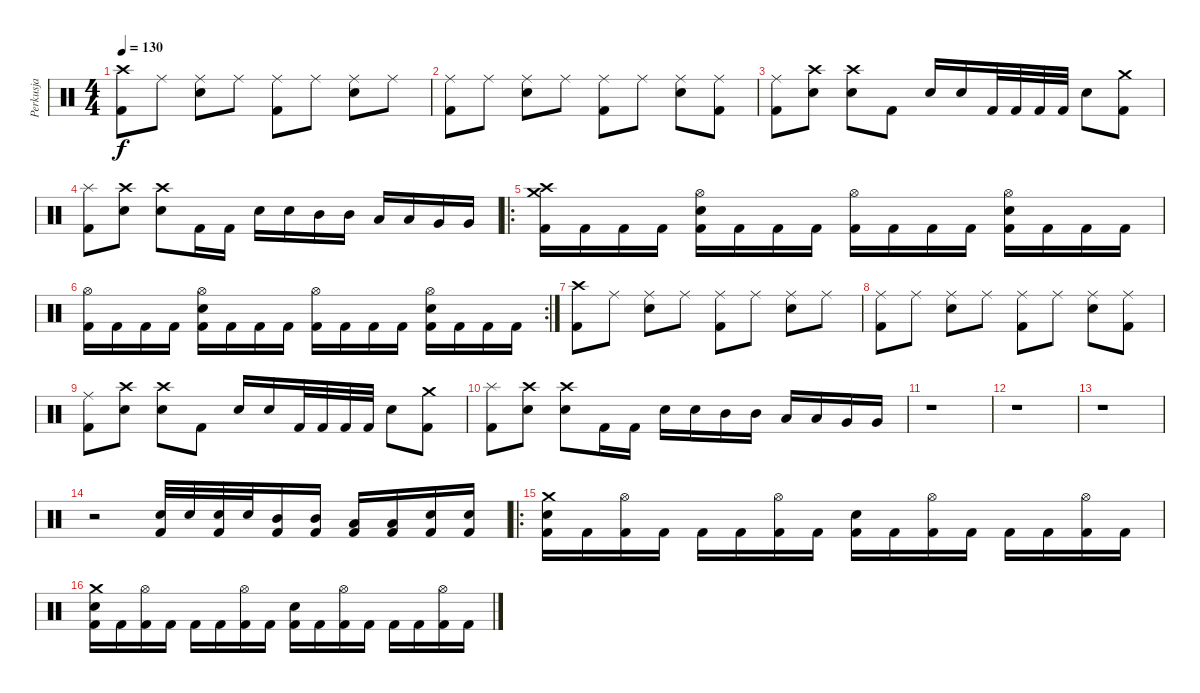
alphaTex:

\track ("Perkusja" "Perkusja") {instrument percussion}
\staff {score}
\articulation defaults
\ts (4 4)
\tempo 130
\clef neutral
\ks c
("Kick (hit) 2" "Crash high (hit)").8{dy f} "Ride (middle)".8 ("Snare (hit) 2" "Ride (middle)").8 "Ride (middle)".8 ("Kick (hit) 2" "Ride (middle)").8 "Ride (middle)".8 ("Snare (hit) 2" "Ride (middle)").8 "Ride (middle)".8 |
("Kick (hit) 2" "Ride (middle)").8 "Ride (middle)".8 ("Snare (hit) 2" "Ride (middle)").8 "Ride (middle)".8 ("Kick (hit) 2" "Ride (middle)").8 "Ride (middle)".8 ("Snare (hit) 2" "Ride (middle)").8 ("Kick (hit) 2" "Ride (middle)").8 |
("Ride (middle)" "Kick (hit) 2").8 ("Snare (hit) 2" "Crash high (hit)").8 ("Snare (hit) 2" "Crash high (hit)").8 "Kick (hit) 2".8 "Snare (hit) 2".16 "Snare (hit) 2".16 "Kick (hit) 2".32 "Kick (hit) 2".32 "Kick (hit) 2".32 "Kick (hit) 2".32 "Snare (hit) 2".8 ("Crash medium (hit)" "Kick (hit) 2").8 |
("Kick (hit) 2" "Splash (hit)").8 ("Snare (hit) 2" "Crash high (hit)").8 ("Snare (hit) 2" "Crash high (hit)").8 "Kick (hit) 2".16 "Kick (hit) 2".16 "Snare (hit) 2".16 "Snare (hit) 2".16 "Mid Tom (hit)".16 "Mid Tom (hit)".16 "Low Tom (hit)".16 "Low Tom (hit)".16 "Very Low Tom (hit)".16 "Very Low Tom (hit)".16 |
\ro
("Kick (hit) 2" "Crash high (hit)" "Crash medium (hit)").16 "Kick (hit) 2".16 "Kick (hit) 2".16 "Kick (hit) 2".16 ("Kick (hit) 2" "Snare (hit) 2" "Hi-Hat (open)").16 "Kick (hit) 2".16 "Kick (hit) 2".16 "Kick (hit) 2".16 ("Kick (hit) 2" "Hi-Hat (open)").16 "Kick (hit) 2".16 "Kick (hit) 2".16 "Kick (hit) 2".16 ("Kick (hit) 2" "Snare (hit) 2" "Hi-Hat (open)").16 "Kick (hit) 2".16 "Kick (hit) 2".16 "Kick (hit) 2".16 |
\rc 2
("Kick (hit) 2" "Hi-Hat (open)").16 "Kick (hit) 2".16 "Kick (hit) 2".16 "Kick (hit) 2".16 ("Kick (hit) 2" "Snare (hit) 2" "Hi-Hat (open)").16 "Kick (hit) 2".16 "Kick (hit) 2".16 "Kick (hit) 2".16 ("Kick (hit) 2" "Hi-Hat (open)").16 "Kick (hit) 2".16 "Kick (hit) 2".16 "Kick (hit) 2".16 ("Kick (hit) 2" "Snare (hit) 2" "Hi-Hat (open)").16 "Kick (hit) 2".16 "Kick (hit) 2".16 "Kick (hit) 2".16 |
("Kick (hit) 2" "Crash high (hit)").8 "Ride (middle)".8 ("Snare (hit) 2" "Ride (middle)").8 "Ride (middle)".8 ("Kick (hit) 2" "Ride (middle)").8 "Ride (middle)".8 ("Snare (hit) 2" "Ride (middle)").8 "Ride (middle)".8 |
("Kick (hit) 2" "Ride (middle)").8 "Ride (middle)".8 ("Snare (hit) 2" "Ride (middle)").8 "Ride (middle)".8 ("Kick (hit) 2" "Ride (middle)").8 "Ride (middle)".8 ("Snare (hit) 2" "Ride (middle)").8 ("Kick (hit) 2" "Ride (middle)").8 |
("Ride (middle)" "Kick (hit) 2").8 ("Snare (hit) 2" "Crash high (hit)").8 ("Snare (hit) 2" "Crash high (hit)").8 "Kick (hit) 2".8 "Snare (hit) 2".16 "Snare (hit) 2".16 "Kick (hit) 2".32 "Kick (hit) 2".32 "Kick (hit) 2".32 "Kick (hit) 2".32 "Snare (hit) 2".8 ("Crash medium (hit)" "Kick (hit) 2").8 |
("Kick (hit) 2" "Splash (hit)").8 ("Snare (hit) 2" "Crash high (hit)").8 ("Snare (hit) 2" "Crash high (hit)").8 "Kick (hit) 2".16 "Kick (hit) 2".16 "Snare (hit) 2".16 "Snare (hit) 2".16 "Mid Tom (hit)".16 "Mid Tom (hit)".16 "Low Tom (hit)".16 "Low Tom (hit)".16 "Very Low Tom (hit)".16 "Very Low Tom (hit)".16 |
r.1 |
r.1 |
r.1 |
r.2 ("Snare (hit) 2" "Kick (hit) 2").32 "Snare (hit) 2".32 ("Snare (hit) 2" "Kick (hit) 2").32 "Snare (hit) 2".32 ("Mid Tom (hit)" "Kick (hit) 2").16 ("Mid Tom (hit)" "Kick (hit) 2").16 ("Low Tom (hit)" "Kick (hit) 2").16 ("Low Tom (hit)" "Kick (hit) 2").16 ("Snare (hit) 2" "Kick (hit) 2").16 ("Snare (hit) 2" "Kick (hit) 2").16 |
\ro
("Kick (hit) 2" "Snare (hit) 2" "Crash medium (hit)").16 "Kick (hit) 2".16 ("Kick (hit) 2" "Hi-Hat (open)").16 "Kick (hit) 2".16 "Kick (hit) 2".16 "Kick (hit) 2".16 ("Kick (hit) 2" "Hi-Hat (open)").16 "Kick (hit) 2".16 ("Kick (hit) 2" "Snare (hit) 2").16 "Kick (hit) 2".16 ("Kick (hit) 2" "Hi-Hat (open)").16 "Kick (hit) 2".16 "Kick (hit) 2".16 "Kick (hit) 2".16 ("Kick (hit) 2" "Hi-Hat (open)").16 "Kick (hit) 2".16 |
("Kick (hit) 2" "Snare (hit) 2" "Crash medium (hit)").16 "Kick (hit) 2".16 ("Kick (hit) 2" "Hi-Hat (open)").16 "Kick (hit) 2".16 "Kick (hit) 2".16 "Kick (hit) 2".16 ("Kick (hit) 2" "Hi-Hat (open)").16 "Kick (hit) 2".16 ("Kick (hit) 2" "Snare (hit) 2").16 "Kick (hit) 2".16 ("Kick (hit) 2" "Hi-Hat (open)").16 "Kick (hit) 2".16 "Kick (hit) 2".16 "Kick (hit) 2".16 ("Kick (hit) 2" "Hi-Hat (open)").16 "Kick (hit) 2".16
